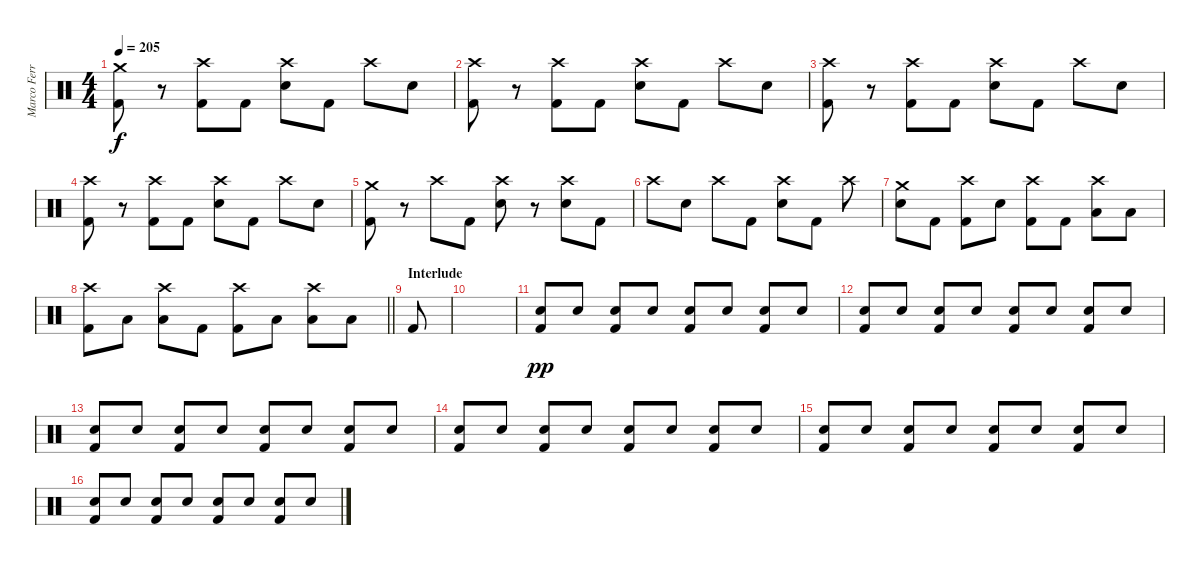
\track ("Marco Ferro" "Marco Ferr") {instrument percussion}
\staff {score}
\articulation defaults
\ts (4 4)
\tempo 205
\clef neutral
\ks c
("Crash medium (hit)" "Kick (hit) 2").8{dy f} r.8 ("Crash high (hit)" "Kick (hit) 2").8 "Kick (hit) 2".8 ("Crash high (hit)" "Electric Snare (hit)").8 "Kick (hit) 2".8 "Crash high (hit)".8 "Electric Snare (hit)".8 |
("Crash high (hit)" "Kick (hit) 2").8 r.8 ("Crash high (hit)" "Kick (hit) 2").8 "Kick (hit) 2".8 ("Crash high (hit)" "Electric Snare (hit)").8 "Kick (hit) 2".8 "Crash high (hit)".8 "Electric Snare (hit)".8 |
("Crash high (hit)" "Kick (hit) 2").8 r.8 ("Crash high (hit)" "Kick (hit) 2").8 "Kick (hit) 2".8 ("Crash high (hit)" "Electric Snare (hit)").8 "Kick (hit) 2".8 "Crash high (hit)".8 "Electric Snare (hit)".8 |
("Crash high (hit)" "Kick (hit) 2").8 r.8 ("Crash high (hit)" "Kick (hit) 2").8 "Kick (hit) 2".8 ("Crash high (hit)" "Electric Snare (hit)").8 "Kick (hit) 2".8 "Crash high (hit)".8 "Electric Snare (hit)".8 |
("Crash medium (hit)" "Kick (hit) 2").8 r.8 "Crash high (hit)".8 "Kick (hit) 2".8 ("Crash high (hit)" "Electric Snare (hit)").8 r.8 ("Crash high (hit)" "Electric Snare (hit)").8 "Kick (hit) 2".8 |
"Crash high (hit)".8 "Electric Snare (hit)".8 "Crash high (hit)".8 "Kick (hit) 2".8 ("Crash high (hit)" "Electric Snare (hit)").8 "Kick (hit) 2".8 "Crash high (hit)".8 |
("Crash medium (hit)" "Electric Snare (hit)").8 "Kick (hit) 2".8 ("Crash high (hit)" "Kick (hit) 2").8 "Electric Snare (hit)".8 ("Crash high (hit)" "Kick (hit) 2").8 "Kick (hit) 2".8 ("Crash high (hit)" "Low Tom (hit)").8 "Low Tom (hit)".8 |
\barLineRight lightlight
("Crash high (hit)" "Kick (hit) 2").8 "Low Tom (hit)".8 ("Crash high (hit)" "Low Tom (hit)").8 "Kick (hit) 2".8 ("Crash high (hit)" "Kick (hit) 2").8 "Low Tom (hit)".8 ("Crash high (hit)" "Low Tom (hit)").8 "Low Tom (hit)".8 |
\section ("" "Interlude")
"Kick (hit) 2".8 |
|
("Electric Snare (hit)" "Kick (hit) 2").8{dy pp} "Electric Snare (hit)".8 ("Electric Snare (hit)" "Kick (hit) 2").8 "Electric Snare (hit)".8 ("Electric Snare (hit)" "Kick (hit) 2").8 "Electric Snare (hit)".8 ("Electric Snare (hit)" "Kick (hit) 2").8 "Electric Snare (hit)".8 |
("Electric Snare (hit)" "Kick (hit) 2").8 "Electric Snare (hit)".8 ("Electric Snare (hit)" "Kick (hit) 2").8 "Electric Snare (hit)".8 ("Electric Snare (hit)" "Kick (hit) 2").8 "Electric Snare (hit)".8 ("Electric Snare (hit)" "Kick (hit) 2").8 "Electric Snare (hit)".8 |
("Electric Snare (hit)" "Kick (hit) 2").8 "Electric Snare (hit)".8 ("Electric Snare (hit)" "Kick (hit) 2").8 "Electric Snare (hit)".8 ("Electric Snare (hit)" "Kick (hit) 2").8 "Electric Snare (hit)".8 ("Electric Snare (hit)" "Kick (hit) 2").8 "Electric Snare (hit)".8 |
("Electric Snare (hit)" "Kick (hit) 2").8 "Electric Snare (hit)".8 ("Electric Snare (hit)" "Kick (hit) 2").8 "Electric Snare (hit)".8 ("Electric Snare (hit)" "Kick (hit) 2").8 "Electric Snare (hit)".8 ("Electric Snare (hit)" "Kick (hit) 2").8 "Electric Snare (hit)".8 |
("Electric Snare (hit)" "Kick (hit) 2").8 "Electric Snare (hit)".8 ("Electric Snare (hit)" "Kick (hit) 2").8 "Electric Snare (hit)".8 ("Electric Snare (hit)" "Kick (hit) 2").8 "Electric Snare (hit)".8 ("Electric Snare (hit)" "Kick (hit) 2").8 "Electric Snare (hit)".8 |
("Electric Snare (hit)" "Kick (hit) 2").8 "Electric Snare (hit)".8 ("Electric Snare (hit)" "Kick (hit) 2").8 "Electric Snare (hit)".8 ("Electric Snare (hit)" "Kick (hit) 2").8 "Electric Snare (hit)".8 ("Electric Snare (hit)" "Kick (hit) 2").8 "Electric Snare (hit)".8
